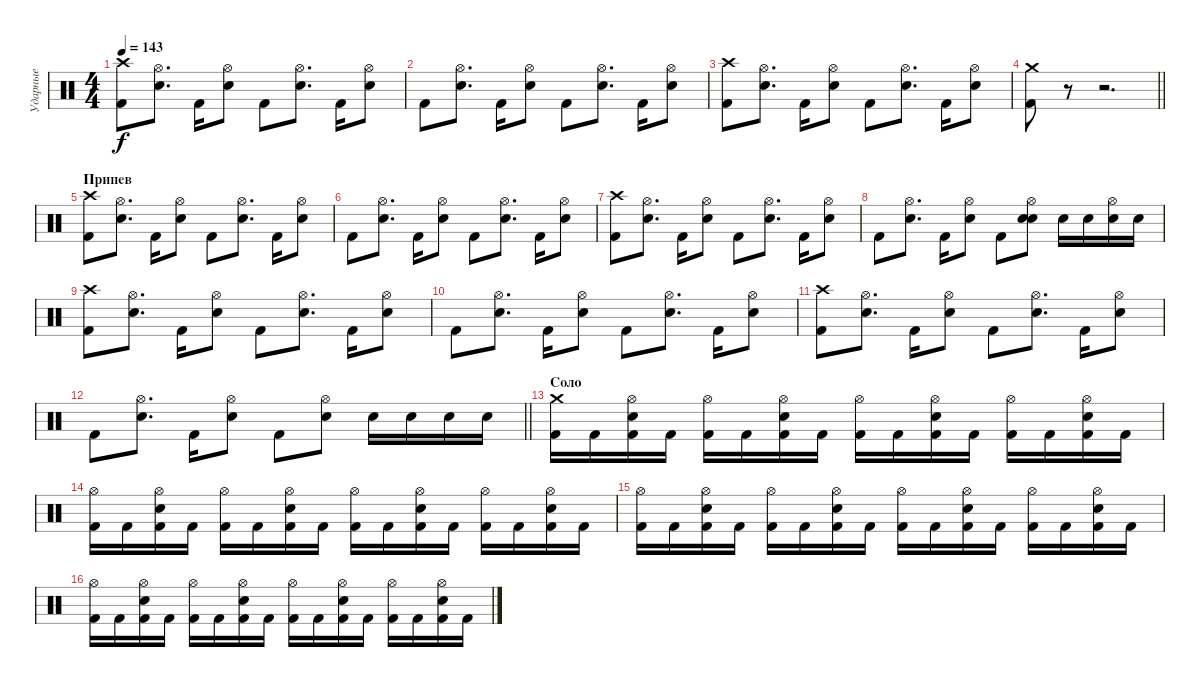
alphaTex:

\track ("Ударные" "Ударные") {instrument percussion}
\staff {score}
\articulation defaults
\ts (4 4)
\tempo 143
\clef neutral
\ks c
("Crash high (hit)" "Kick (hit) 2").8{dy f} ("Hi-Hat (open)" "Electric Snare (hit)").8{d} "Kick (hit) 2".16 ("Hi-Hat (open)" "Electric Snare (hit)").8 "Kick (hit) 2".8 ("Hi-Hat (open)" "Electric Snare (hit)").8{d} "Kick (hit) 2".16 ("Hi-Hat (open)" "Electric Snare (hit)").8 |
"Kick (hit) 2".8 ("Hi-Hat (open)" "Electric Snare (hit)").8{d} "Kick (hit) 2".16 ("Hi-Hat (open)" "Electric Snare (hit)").8 "Kick (hit) 2".8 ("Hi-Hat (open)" "Electric Snare (hit)").8{d} "Kick (hit) 2".16 ("Hi-Hat (open)" "Electric Snare (hit)").8 |
("Crash high (hit)" "Kick (hit) 2").8 ("Hi-Hat (open)" "Electric Snare (hit)").8{d} "Kick (hit) 2".16 ("Hi-Hat (open)" "Electric Snare (hit)").8 "Kick (hit) 2".8 ("Hi-Hat (open)" "Electric Snare (hit)").8{d} "Kick (hit) 2".16 ("Hi-Hat (open)" "Electric Snare (hit)").8 |
\barLineRight lightlight
("Crash medium (hit)" "Kick (hit) 2").8 r.8 r.2{d} |
\section ("" "Припев")
("Crash high (hit)" "Kick (hit) 2").8 ("Hi-Hat (open)" "Electric Snare (hit)").8{d} "Kick (hit) 2".16 ("Hi-Hat (open)" "Electric Snare (hit)").8 "Kick (hit) 2".8 ("Hi-Hat (open)" "Electric Snare (hit)").8{d} "Kick (hit) 2".16 ("Hi-Hat (open)" "Electric Snare (hit)").8 |
"Kick (hit) 2".8 ("Hi-Hat (open)" "Electric Snare (hit)").8{d} "Kick (hit) 2".16 ("Hi-Hat (open)" "Electric Snare (hit)").8 "Kick (hit) 2".8 ("Hi-Hat (open)" "Electric Snare (hit)").8{d} "Kick (hit) 2".16 ("Hi-Hat (open)" "Electric Snare (hit)").8 |
("Crash high (hit)" "Kick (hit) 2").8 ("Hi-Hat (open)" "Electric Snare (hit)").8{d} "Kick (hit) 2".16 ("Hi-Hat (open)" "Electric Snare (hit)").8 "Kick (hit) 2".8 ("Hi-Hat (open)" "Electric Snare (hit)").8{d} "Kick (hit) 2".16 ("Hi-Hat (open)" "Electric Snare (hit)").8 |
"Kick (hit) 2".8 ("Hi-Hat (open)" "Electric Snare (hit)").8{d} "Kick (hit) 2".16 ("Hi-Hat (open)" "Electric Snare (hit)").8 "Kick (hit) 2".8 ("Hi-Hat (open)" "Snare (hit) 2" "Electric Snare (hit)").8 "Snare (hit) 2".16 "Snare (hit) 2".16 ("Hi-Hat (open)" "Snare (hit) 2").16 "Snare (hit) 2".16 |
("Crash high (hit)" "Kick (hit) 2").8 ("Hi-Hat (open)" "Electric Snare (hit)").8{d} "Kick (hit) 2".16 ("Hi-Hat (open)" "Electric Snare (hit)").8 "Kick (hit) 2".8 ("Hi-Hat (open)" "Electric Snare (hit)").8{d} "Kick (hit) 2".16 ("Hi-Hat (open)" "Electric Snare (hit)").8 |
"Kick (hit) 2".8 ("Hi-Hat (open)" "Electric Snare (hit)").8{d} "Kick (hit) 2".16 ("Hi-Hat (open)" "Electric Snare (hit)").8 "Kick (hit) 2".8 ("Hi-Hat (open)" "Electric Snare (hit)").8{d} "Kick (hit) 2".16 ("Hi-Hat (open)" "Electric Snare (hit)").8 |
("Crash high (hit)" "Kick (hit) 2").8 ("Hi-Hat (open)" "Electric Snare (hit)").8{d} "Kick (hit) 2".16 ("Hi-Hat (open)" "Electric Snare (hit)").8 "Kick (hit) 2".8 ("Hi-Hat (open)" "Electric Snare (hit)").8{d} "Kick (hit) 2".16 ("Hi-Hat (open)" "Electric Snare (hit)").8 |
\barLineRight lightlight "Kick (hit) 2".8
("Hi-Hat (open)" "Electric Snare (hit)").8{d} "Kick (hit) 2".16 ("Hi-Hat (open)" "Electric Snare (hit)").8 "Kick (hit) 2".8 ("Hi-Hat (open)" "Snare (hit) 2").8 "Snare (hit) 2".16 "Snare (hit) 2".16 "Snare (hit) 2".16 "Snare (hit) 2".16 |
\section ("" "Соло ")
("Crash medium (hit)" "Kick (hit) 2").16 "Kick (hit) 2".16 ("Hi-Hat (open)" "Snare (hit) 2" "Kick (hit) 2").16 "Kick (hit) 2".16 ("Hi-Hat (open)" "Kick (hit) 2").16 "Kick (hit) 2".16 ("Hi-Hat (open)" "Snare (hit) 2" "Kick (hit) 2").16 "Kick (hit) 2".16 ("Hi-Hat (open)" "Kick (hit) 2").16 "Kick (hit) 2".16 ("Hi-Hat (open)" "Snare (hit) 2" "Kick (hit) 2").16 "Kick (hit) 2".16 ("Hi-Hat (open)" "Kick (hit) 2").16 "Kick (hit) 2".16 ("Hi-Hat (open)" "Snare (hit) 2" "Kick (hit) 2").16 "Kick (hit) 2".16 |
("Hi-Hat (open)" "Kick (hit) 2").16 "Kick (hit) 2".16 ("Hi-Hat (open)" "Snare (hit) 2" "Kick (hit) 2").16 "Kick (hit) 2".16 ("Hi-Hat (open)" "Kick (hit) 2").16 "Kick (hit) 2".16 ("Hi-Hat (open)" "Snare (hit) 2" "Kick (hit) 2").16 "Kick (hit) 2".16 ("Hi-Hat (open)" "Kick (hit) 2").16 "Kick (hit) 2".16 ("Hi-Hat (open)" "Snare (hit) 2" "Kick (hit) 2").16 "Kick (hit) 2".16 ("Hi-Hat (open)" "Kick (hit) 2").16 "Kick (hit) 2".16 ("Hi-Hat (open)" "Snare (hit) 2" "Kick (hit) 2").16 "Kick (hit) 2".16 |
("Hi-Hat (open)" "Kick (hit) 2").16 "Kick (hit) 2".16 ("Hi-Hat (open)" "Snare (hit) 2" "Kick (hit) 2").16 "Kick (hit) 2".16 ("Hi-Hat (open)" "Kick (hit) 2").16 "Kick (hit) 2".16 ("Hi-Hat (open)" "Snare (hit) 2" "Kick (hit) 2").16 "Kick (hit) 2".16 ("Hi-Hat (open)" "Kick (hit) 2").16 "Kick (hit) 2".16 ("Hi-Hat (open)" "Snare (hit) 2" "Kick (hit) 2").16 "Kick (hit) 2".16 ("Hi-Hat (open)" "Kick (hit) 2").16 "Kick (hit) 2".16 ("Hi-Hat (open)" "Snare (hit) 2" "Kick (hit) 2").16 "Kick (hit) 2".16 |
("Hi-Hat (open)" "Kick (hit) 2").16 "Kick (hit) 2".16 ("Hi-Hat (open)" "Snare (hit) 2" "Kick (hit) 2").16 "Kick (hit) 2".16 ("Hi-Hat (open)" "Kick (hit) 2").16 "Kick (hit) 2".16 ("Hi-Hat (open)" "Snare (hit) 2" "Kick (hit) 2").16 "Kick (hit) 2".16 ("Hi-Hat (open)" "Kick (hit) 2").16 "Kick (hit) 2".16 ("Hi-Hat (open)" "Snare (hit) 2" "Kick (hit) 2").16 "Kick (hit) 2".16 ("Hi-Hat (open)" "Kick (hit) 2").16 "Kick (hit) 2".16 ("Hi-Hat (open)" "Snare (hit) 2" "Kick (hit) 2").16 "Kick (hit) 2".16
